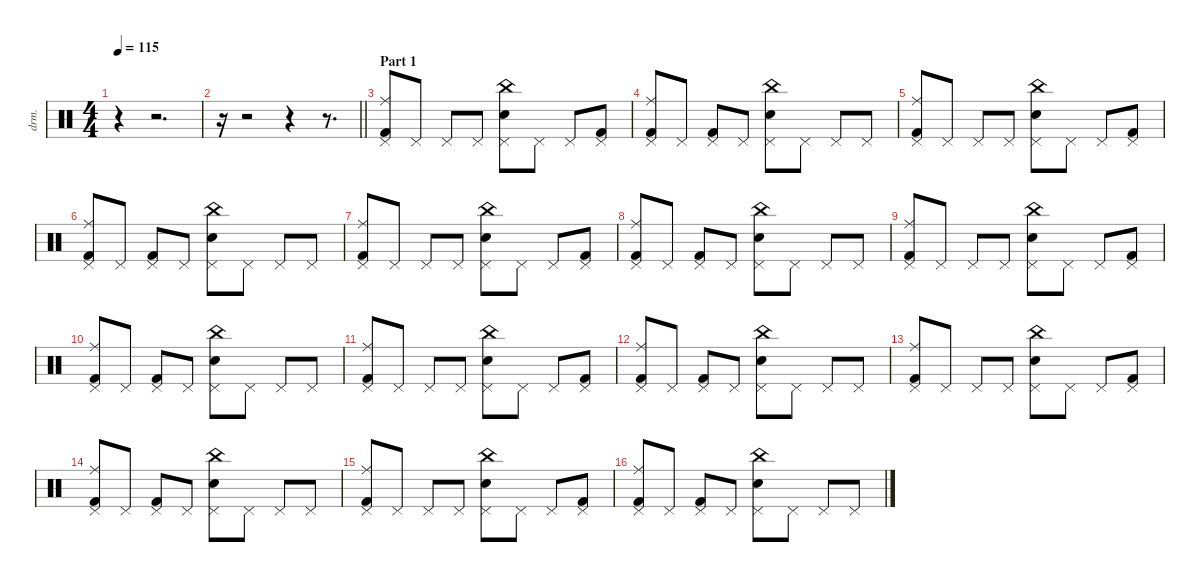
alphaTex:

\defaultSystemsLayout 4
\hideDynamics
\bracketExtendMode nobrackets
\otherSystemsTrackNameOrientation horizontal
\track ("Drums" "drm.") {instrument percussion}
\staff {score}
\articulation defaults
\ts (4 4)
\tempo 115
\clef neutral
\ks c
r.4{dy f} r.2{d} |
\barLineRight lightlight
r.16 r.2 r.4 r.8{d} |
\section ("" "Part 1")
("Pedal Hi-Hat (hit)" "Ride (middle)" "Kick (hit) 2").8 "Pedal Hi-Hat (hit)".8 "Pedal Hi-Hat (hit)".8 "Pedal Hi-Hat (hit)".8 ("Pedal Hi-Hat (hit)" "Snare (hit) 2" "China (hit)").8 "Pedal Hi-Hat (hit)".8 "Pedal Hi-Hat (hit)".8 ("Pedal Hi-Hat (hit)" "Kick (hit) 2").8 |
("Pedal Hi-Hat (hit)" "Ride (middle)" "Kick (hit) 2").8 "Pedal Hi-Hat (hit)".8 ("Pedal Hi-Hat (hit)" "Kick (hit) 2").8 "Pedal Hi-Hat (hit)".8 ("Pedal Hi-Hat (hit)" "Snare (hit) 2" "China (hit)").8 "Pedal Hi-Hat (hit)".8 "Pedal Hi-Hat (hit)".8 "Pedal Hi-Hat (hit)".8 |
("Pedal Hi-Hat (hit)" "Ride (middle)" "Kick (hit) 2").8 "Pedal Hi-Hat (hit)".8 "Pedal Hi-Hat (hit)".8 "Pedal Hi-Hat (hit)".8 ("Pedal Hi-Hat (hit)" "Snare (hit) 2" "China (hit)").8 "Pedal Hi-Hat (hit)".8 "Pedal Hi-Hat (hit)".8 ("Pedal Hi-Hat (hit)" "Kick (hit) 2").8 |
("Pedal Hi-Hat (hit)" "Ride (middle)" "Kick (hit) 2").8 "Pedal Hi-Hat (hit)".8 ("Pedal Hi-Hat (hit)" "Kick (hit) 2").8 "Pedal Hi-Hat (hit)".8 ("Pedal Hi-Hat (hit)" "Snare (hit) 2" "China (hit)").8 "Pedal Hi-Hat (hit)".8 "Pedal Hi-Hat (hit)".8 "Pedal Hi-Hat (hit)".8 |
("Pedal Hi-Hat (hit)" "Ride (middle)" "Kick (hit) 2").8 "Pedal Hi-Hat (hit)".8 "Pedal Hi-Hat (hit)".8 "Pedal Hi-Hat (hit)".8 ("Pedal Hi-Hat (hit)" "Snare (hit) 2" "China (hit)").8 "Pedal Hi-Hat (hit)".8 "Pedal Hi-Hat (hit)".8 ("Pedal Hi-Hat (hit)" "Kick (hit) 2").8 |
("Pedal Hi-Hat (hit)" "Ride (middle)" "Kick (hit) 2").8 "Pedal Hi-Hat (hit)".8 ("Pedal Hi-Hat (hit)" "Kick (hit) 2").8 "Pedal Hi-Hat (hit)".8 ("Pedal Hi-Hat (hit)" "Snare (hit) 2" "China (hit)").8 "Pedal Hi-Hat (hit)".8 "Pedal Hi-Hat (hit)".8 "Pedal Hi-Hat (hit)".8 |
("Pedal Hi-Hat (hit)" "Ride (middle)" "Kick (hit) 2").8 "Pedal Hi-Hat (hit)".8 "Pedal Hi-Hat (hit)".8 "Pedal Hi-Hat (hit)".8 ("Pedal Hi-Hat (hit)" "Snare (hit) 2" "China (hit)").8 "Pedal Hi-Hat (hit)".8 "Pedal Hi-Hat (hit)".8 ("Pedal Hi-Hat (hit)" "Kick (hit) 2").8 |
("Pedal Hi-Hat (hit)" "Ride (middle)" "Kick (hit) 2").8 "Pedal Hi-Hat (hit)".8 ("Pedal Hi-Hat (hit)" "Kick (hit) 2").8 "Pedal Hi-Hat (hit)".8 ("Pedal Hi-Hat (hit)" "Snare (hit) 2" "China (hit)").8 "Pedal Hi-Hat (hit)".8 "Pedal Hi-Hat (hit)".8 "Pedal Hi-Hat (hit)".8 |
("Pedal Hi-Hat (hit)" "Ride (middle)" "Kick (hit) 2").8 "Pedal Hi-Hat (hit)".8 "Pedal Hi-Hat (hit)".8 "Pedal Hi-Hat (hit)".8 ("Pedal Hi-Hat (hit)" "Snare (hit) 2" "China (hit)").8 "Pedal Hi-Hat (hit)".8 "Pedal Hi-Hat (hit)".8 ("Pedal Hi-Hat (hit)" "Kick (hit) 2").8 |
("Pedal Hi-Hat (hit)" "Ride (middle)" "Kick (hit) 2").8 "Pedal Hi-Hat (hit)".8 ("Pedal Hi-Hat (hit)" "Kick (hit) 2").8 "Pedal Hi-Hat (hit)".8 ("Pedal Hi-Hat (hit)" "Snare (hit) 2" "China (hit)").8 "Pedal Hi-Hat (hit)".8 "Pedal Hi-Hat (hit)".8 "Pedal Hi-Hat (hit)".8 |
("Pedal Hi-Hat (hit)" "Ride (middle)" "Kick (hit) 2").8 "Pedal Hi-Hat (hit)".8 "Pedal Hi-Hat (hit)".8 "Pedal Hi-Hat (hit)".8 ("Pedal Hi-Hat (hit)" "Snare (hit) 2" "China (hit)").8 "Pedal Hi-Hat (hit)".8 "Pedal Hi-Hat (hit)".8 ("Pedal Hi-Hat (hit)" "Kick (hit) 2").8 |
("Pedal Hi-Hat (hit)" "Ride (middle)" "Kick (hit) 2").8 "Pedal Hi-Hat (hit)".8 ("Pedal Hi-Hat (hit)" "Kick (hit) 2").8 "Pedal Hi-Hat (hit)".8 ("Pedal Hi-Hat (hit)" "Snare (hit) 2" "China (hit)").8 "Pedal Hi-Hat (hit)".8 "Pedal Hi-Hat (hit)".8 "Pedal Hi-Hat (hit)".8 |
("Pedal Hi-Hat (hit)" "Ride (middle)" "Kick (hit) 2").8 "Pedal Hi-Hat (hit)".8 "Pedal Hi-Hat (hit)".8 "Pedal Hi-Hat (hit)".8 ("Pedal Hi-Hat (hit)" "Snare (hit) 2" "China (hit)").8 "Pedal Hi-Hat (hit)".8 "Pedal Hi-Hat (hit)".8 ("Pedal Hi-Hat (hit)" "Kick (hit) 2").8 |
("Pedal Hi-Hat (hit)" "Ride (middle)" "Kick (hit) 2").8 "Pedal Hi-Hat (hit)".8 ("Pedal Hi-Hat (hit)" "Kick (hit) 2").8 "Pedal Hi-Hat (hit)".8 ("Pedal Hi-Hat (hit)" "Snare (hit) 2" "China (hit)").8 "Pedal Hi-Hat (hit)".8 "Pedal Hi-Hat (hit)".8 "Pedal Hi-Hat (hit)".8
